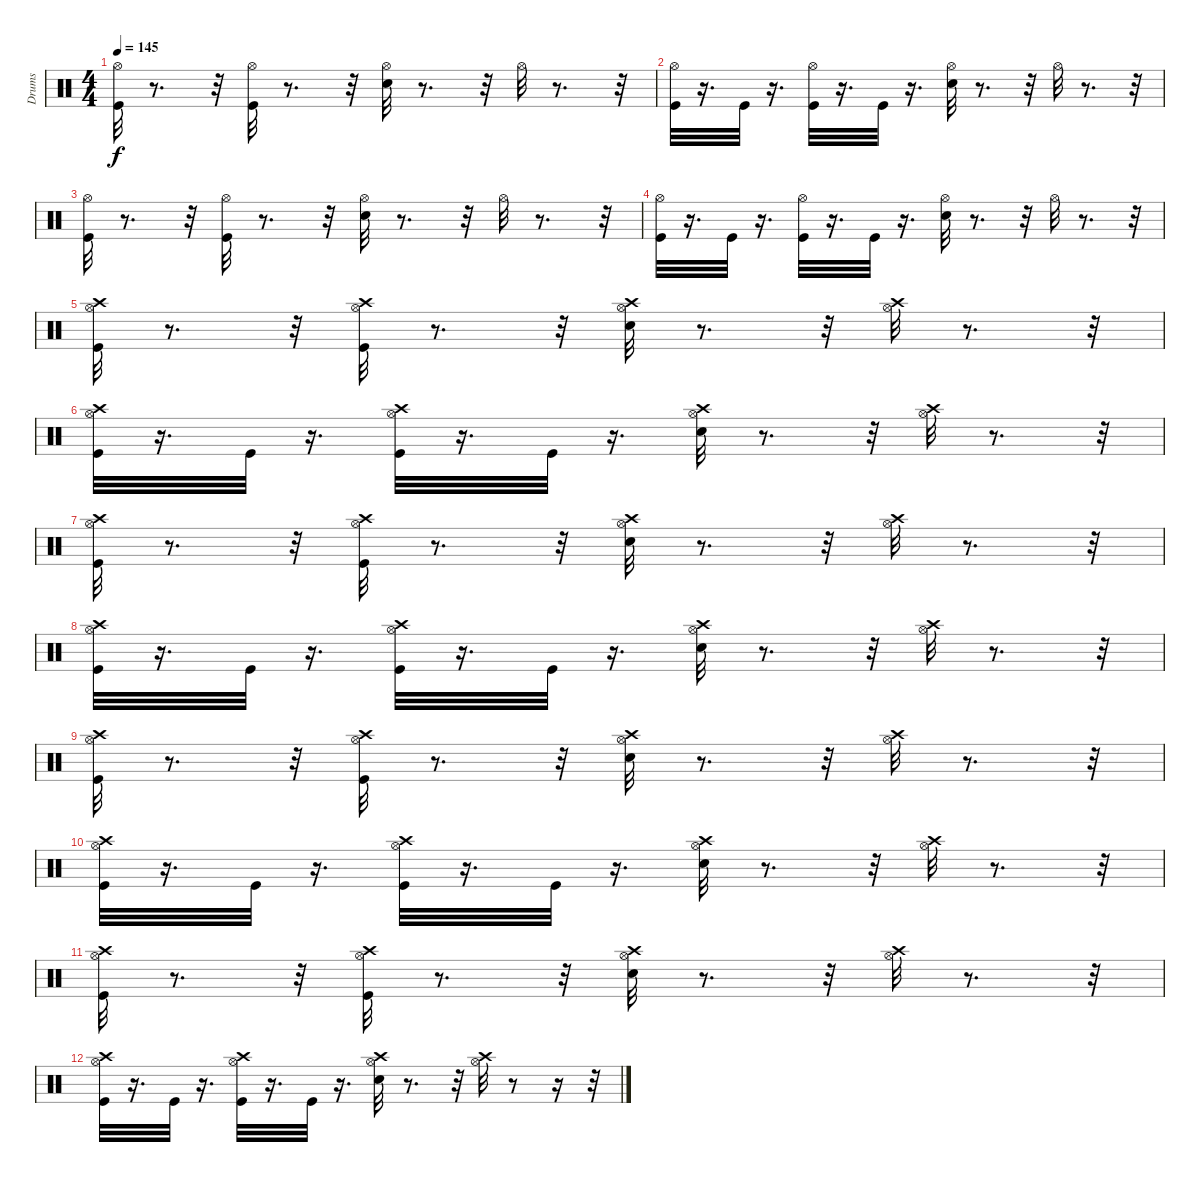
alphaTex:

\track ("Drums" "Drums") {instrument percussion}
\staff {score}
\articulation defaults
\ts (4 4)
\tempo 145
\clef neutral
\ks c
("Kick (hit)" "Hi-Hat (open)").32{dy f} r.8{d} r.32 ("Hi-Hat (open)" "Kick (hit)").32 r.8{d} r.32 ("Snare (hit) 2" "Hi-Hat (open)").32 r.8{d} r.32 "Hi-Hat (open)".32 r.8{d} r.32 |
("Kick (hit)" "Hi-Hat (open)").32 r.16{d} "Kick (hit)".32 r.16{d} ("Kick (hit)" "Hi-Hat (open)").32 r.16{d} "Kick (hit)".32 r.16{d} ("Snare (hit) 2" "Hi-Hat (open)").32 r.8{d} r.32 "Hi-Hat (open)".32 r.8{d} r.32 |
("Kick (hit)" "Hi-Hat (open)").32 r.8{d} r.32 ("Hi-Hat (open)" "Kick (hit)").32 r.8{d} r.32 ("Snare (hit) 2" "Hi-Hat (open)").32 r.8{d} r.32 "Hi-Hat (open)".32 r.8{d} r.32 |
("Kick (hit)" "Hi-Hat (open)").32 r.16{d} "Kick (hit)".32 r.16{d} ("Kick (hit)" "Hi-Hat (open)").32 r.16{d} "Kick (hit)".32 r.16{d} ("Snare (hit) 2" "Hi-Hat (open)").32 r.8{d} r.32 "Hi-Hat (open)".32 r.8{d} r.32 |
("Kick (hit)" "Hi-Hat (open)" "Crash high (hit)").32 r.8{d} r.32 ("Hi-Hat (open)" "Crash high (hit)" "Kick (hit)").32 r.8{d} r.32 ("Snare (hit) 2" "Hi-Hat (open)" "Crash high (hit)").32 r.8{d} r.32 ("Hi-Hat (open)" "Crash high (hit)").32 r.8{d} r.32 |
("Kick (hit)" "Hi-Hat (open)" "Crash high (hit)").32 r.16{d} "Kick (hit)".32 r.16{d} ("Kick (hit)" "Hi-Hat (open)" "Crash high (hit)").32 r.16{d} "Kick (hit)".32 r.16{d} ("Snare (hit) 2" "Hi-Hat (open)" "Crash high (hit)").32 r.8{d} r.32 ("Hi-Hat (open)" "Crash high (hit)").32 r.8{d} r.32 |
("Kick (hit)" "Hi-Hat (open)" "Crash high (hit)").32 r.8{d} r.32 ("Hi-Hat (open)" "Crash high (hit)" "Kick (hit)").32 r.8{d} r.32 ("Snare (hit) 2" "Hi-Hat (open)" "Crash high (hit)").32 r.8{d} r.32 ("Hi-Hat (open)" "Crash high (hit)").32 r.8{d} r.32 |
("Kick (hit)" "Hi-Hat (open)" "Crash high (hit)").32 r.16{d} "Kick (hit)".32 r.16{d} ("Kick (hit)" "Hi-Hat (open)" "Crash high (hit)").32 r.16{d} "Kick (hit)".32 r.16{d} ("Snare (hit) 2" "Hi-Hat (open)" "Crash high (hit)").32 r.8{d} r.32 ("Hi-Hat (open)" "Crash high (hit)").32 r.8{d} r.32 |
("Kick (hit)" "Hi-Hat (open)" "Crash high (hit)").32 r.8{d} r.32 ("Hi-Hat (open)" "Crash high (hit)" "Kick (hit)").32 r.8{d} r.32 ("Snare (hit) 2" "Hi-Hat (open)" "Crash high (hit)").32 r.8{d} r.32 ("Hi-Hat (open)" "Crash high (hit)").32 r.8{d} r.32 |
("Kick (hit)" "Hi-Hat (open)" "Crash high (hit)").32 r.16{d} "Kick (hit)".32 r.16{d} ("Kick (hit)" "Hi-Hat (open)" "Crash high (hit)").32 r.16{d} "Kick (hit)".32 r.16{d} ("Snare (hit) 2" "Hi-Hat (open)" "Crash high (hit)").32 r.8{d} r.32 ("Hi-Hat (open)" "Crash high (hit)").32 r.8{d} r.32 |
("Kick (hit)" "Hi-Hat (open)" "Crash high (hit)").32 r.8{d} r.32 ("Hi-Hat (open)" "Crash high (hit)" "Kick (hit)").32 r.8{d} r.32 ("Snare (hit) 2" "Hi-Hat (open)" "Crash high (hit)").32 r.8{d} r.32 ("Hi-Hat (open)" "Crash high (hit)").32 r.8{d} r.32 |
("Kick (hit)" "Hi-Hat (open)" "Crash high (hit)").32 r.16{d} "Kick (hit)".32 r.16{d} ("Kick (hit)" "Hi-Hat (open)" "Crash high (hit)").32 r.16{d} "Kick (hit)".32 r.16{d} ("Snare (hit) 2" "Hi-Hat (open)" "Crash high (hit)").32 r.8{d} r.32 ("Hi-Hat (open)" "Crash high (hit)").32 r.8 r.16 r.32
